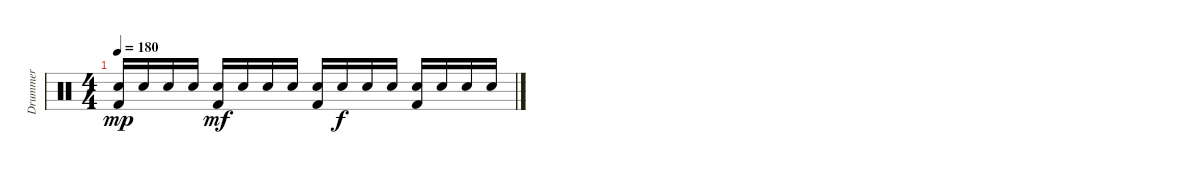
\track ("Drummer" "Drummer") {instrument percussion}
\staff {score}
\articulation defaults
\ts (4 4)
\tempo 180
\clef neutral
\ks c
("Electric Snare (hit)" "Kick (hit) 2").16{dy mp} "Electric Snare (hit)".16 "Electric Snare (hit)".16 "Electric Snare (hit)".16 ("Electric Snare (hit)" "Kick (hit) 2").16{dy mf} "Electric Snare (hit)".16 "Electric Snare (hit)".16 "Electric Snare (hit)".16 ("Electric Snare (hit)" "Kick (hit) 2").16 "Electric Snare (hit)".16{dy f} "Electric Snare (hit)".16 "Electric Snare (hit)".16 ("Electric Snare (hit)" "Kick (hit) 2").16 "Electric Snare (hit)".16 "Electric Snare (hit)".16 "Electric Snare (hit)".16
